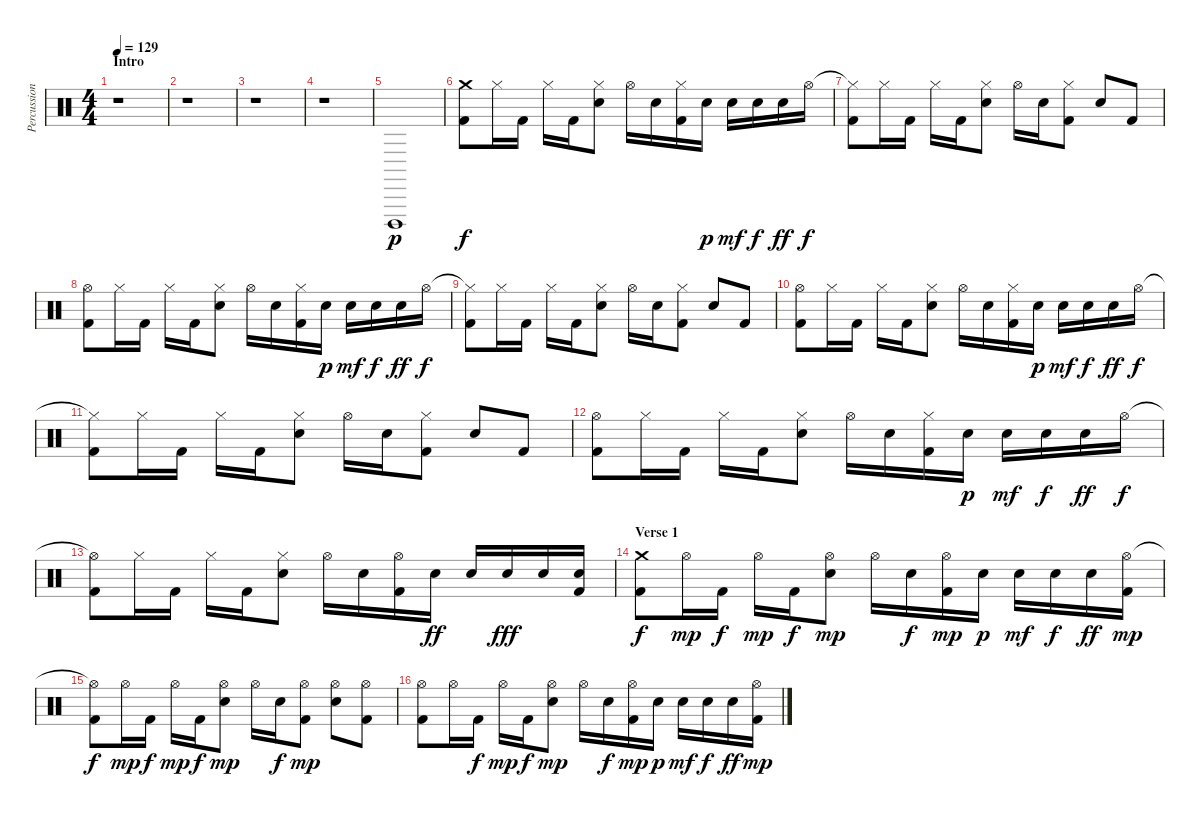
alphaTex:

\track ("Percussions" "Percussion") {instrument percussion}
\staff {score}
\articulation defaults
\ts (4 4)
\section ("" "Intro")
\tempo 129
\clef neutral
\ks c
r.1{dy p} |
r.1 |
r.1 |
r.1 |
"Cuica (open)".1 |
("Crash medium (hit)" "Kick (hit) 2").8{dy f} "Hi-Hat (closed)".16 "Kick (hit) 2".16 "Hi-Hat (closed)".16 "Kick (hit) 2".16 ("Hi-Hat (closed)" "Snare (hit) 2").8 "Hi-Hat (open)".16 "Snare (hit) 2".16 ("Hi-Hat (closed)" "Kick (hit) 2").16 "Snare (hit) 2".16{dy p} "Snare (hit) 2".16{dy mf} "Snare (hit) 2".16{dy f} "Snare (hit) 2".16{dy ff} "Hi-Hat (open)".16{dy f} |
("Hi-Hat (closed)"{t} "Kick (hit) 2").8 "Hi-Hat (closed)".16 "Kick (hit) 2".16 "Hi-Hat (closed)".16 "Kick (hit) 2".16 ("Hi-Hat (closed)" "Snare (hit) 2").8 "Hi-Hat (open)".16 "Snare (hit) 2".16 ("Hi-Hat (closed)" "Kick (hit) 2").8 "Snare (hit) 2".8 "Kick (hit) 2".8 |
("Hi-Hat (open)" "Kick (hit) 2").8 "Hi-Hat (closed)".16 "Kick (hit) 2".16 "Hi-Hat (closed)".16 "Kick (hit) 2".16 ("Hi-Hat (closed)" "Snare (hit) 2").8 "Hi-Hat (open)".16 "Snare (hit) 2".16 ("Hi-Hat (closed)" "Kick (hit) 2").16 "Snare (hit) 2".16{dy p} "Snare (hit) 2".16{dy mf} "Snare (hit) 2".16{dy f} "Snare (hit) 2".16{dy ff} "Hi-Hat (open)".16{dy f} |
("Hi-Hat (closed)"{t} "Kick (hit) 2").8 "Hi-Hat (closed)".16 "Kick (hit) 2".16 "Hi-Hat (closed)".16 "Kick (hit) 2".16 ("Hi-Hat (closed)" "Snare (hit) 2").8 "Hi-Hat (open)".16 "Snare (hit) 2".16 ("Hi-Hat (closed)" "Kick (hit) 2").8 "Snare (hit) 2".8 "Kick (hit) 2".8 |
("Hi-Hat (open)" "Kick (hit) 2").8 "Hi-Hat (closed)".16 "Kick (hit) 2".16 "Hi-Hat (closed)".16 "Kick (hit) 2".16 ("Hi-Hat (closed)" "Snare (hit) 2").8 "Hi-Hat (open)".16 "Snare (hit) 2".16 ("Hi-Hat (closed)" "Kick (hit) 2").16 "Snare (hit) 2".16{dy p} "Snare (hit) 2".16{dy mf} "Snare (hit) 2".16{dy f} "Snare (hit) 2".16{dy ff} "Hi-Hat (open)".16{dy f} |
("Hi-Hat (closed)"{t} "Kick (hit) 2").8 "Hi-Hat (closed)".16 "Kick (hit) 2".16 "Hi-Hat (closed)".16 "Kick (hit) 2".16 ("Hi-Hat (closed)" "Snare (hit) 2").8 "Hi-Hat (open)".16 "Snare (hit) 2".16 ("Hi-Hat (closed)" "Kick (hit) 2").8 "Snare (hit) 2".8 "Kick (hit) 2".8 |
("Hi-Hat (open)" "Kick (hit) 2").8 "Hi-Hat (closed)".16 "Kick (hit) 2".16 "Hi-Hat (closed)".16 "Kick (hit) 2".16 ("Hi-Hat (closed)" "Snare (hit) 2").8 "Hi-Hat (open)".16 "Snare (hit) 2".16 ("Hi-Hat (closed)" "Kick (hit) 2").16 "Snare (hit) 2".16{dy p} "Snare (hit) 2".16{dy mf} "Snare (hit) 2".16{dy f} "Snare (hit) 2".16{dy ff} "Hi-Hat (open)".16{dy f} |
("Hi-Hat (open)"{t} "Kick (hit) 2").8 "Hi-Hat (closed)".16 "Kick (hit) 2".16 "Hi-Hat (closed)".16 "Kick (hit) 2".16 ("Hi-Hat (closed)" "Snare (hit) 2").8 "Hi-Hat (open)".16 "Snare (hit) 2".16 ("Hi-Hat (open)" "Kick (hit) 2").16 "Snare (hit) 2".16{dy ff} "Snare (hit) 2".16 "Snare (hit) 2".16{dy fff} "Snare (hit) 2".16 ("Snare (hit) 2" "Kick (hit) 2").16 |
\section ("" "Verse 1")
("Crash medium (hit)" "Kick (hit) 2").8{dy f} "Hi-Hat (open)".16{dy mp} "Kick (hit) 2".16{dy f} "Hi-Hat (open)".16{dy mp} "Kick (hit) 2".16{dy f} ("Hi-Hat (open)" "Snare (hit) 2").8{dy mp} "Hi-Hat (open)".16 "Snare (hit) 2".16{dy f} ("Hi-Hat (open)" "Kick (hit) 2").16{dy mp} "Snare (hit) 2".16{dy p} "Snare (hit) 2".16{dy mf} "Snare (hit) 2".16{dy f} "Snare (hit) 2".16{dy ff} ("Hi-Hat (open)" "Kick (hit) 2").16{dy mp} |
("Hi-Hat (open)"{t} "Kick (hit) 2").8{dy f} "Hi-Hat (open)".16{dy mp} "Kick (hit) 2".16{dy f} "Hi-Hat (open)".16{dy mp} "Kick (hit) 2".16{dy f} ("Hi-Hat (open)" "Snare (hit) 2").8{dy mp} "Hi-Hat (open)".16 "Snare (hit) 2".16{dy f} ("Hi-Hat (open)" "Kick (hit) 2").8{dy mp} ("Hi-Hat (open)" "Snare (hit) 2").8 ("Hi-Hat (open)" "Kick (hit) 2").8 |
("Hi-Hat (open)" "Kick (hit) 2").8 "Hi-Hat (open)".16 "Kick (hit) 2".16{dy f} "Hi-Hat (open)".16{dy mp} "Kick (hit) 2".16{dy f} ("Hi-Hat (open)" "Snare (hit) 2").8{dy mp} "Hi-Hat (open)".16 "Snare (hit) 2".16{dy f} ("Hi-Hat (open)" "Kick (hit) 2").16{dy mp} "Snare (hit) 2".16{dy p} "Snare (hit) 2".16{dy mf} "Snare (hit) 2".16{dy f} "Snare (hit) 2".16{dy ff} ("Hi-Hat (open)" "Kick (hit) 2").16{dy mp}
